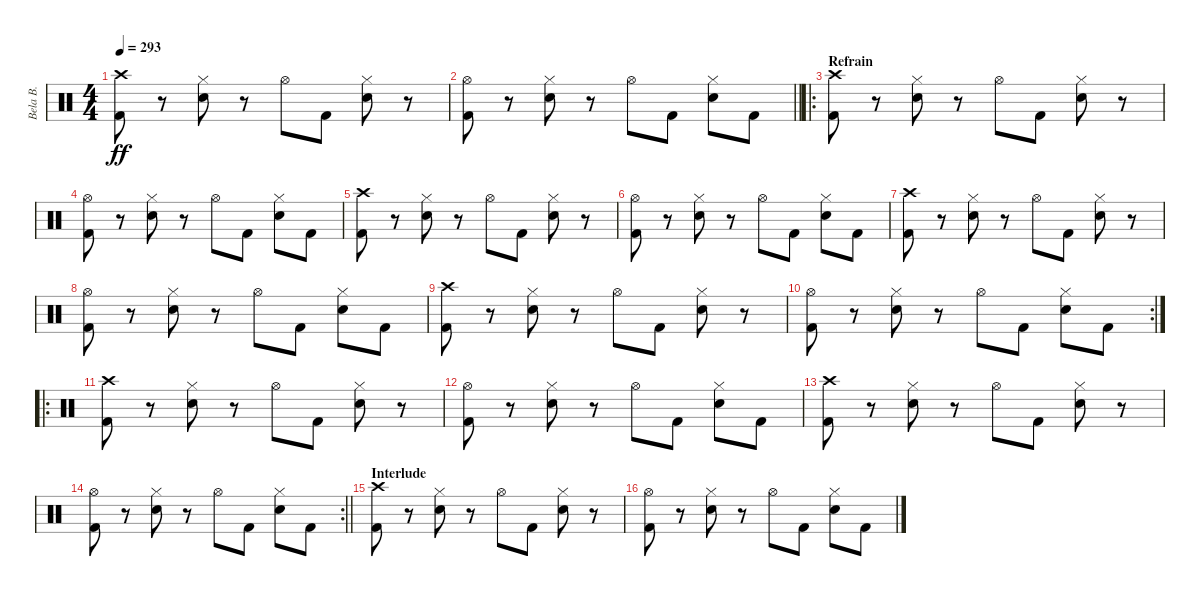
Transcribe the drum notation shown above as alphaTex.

\track ("Bela B." "Bela B.") {instrument percussion}
\staff {score}
\articulation defaults
\ts (4 4)
\tempo 293
\clef neutral
\ks c
("Crash high (hit)" "Kick (hit) 2").8{dy ff} r.8 ("Hi-Hat (closed)" "Snare (hit) 2").8 r.8 "Hi-Hat (open)".8 "Kick (hit) 2".8 ("Hi-Hat (closed)" "Snare (hit) 2").8 r.8 |
\barLineRight lightlight
("Hi-Hat (open)" "Kick (hit) 2").8 r.8 ("Hi-Hat (closed)" "Snare (hit) 2").8 r.8 "Hi-Hat (open)".8 "Kick (hit) 2".8 ("Hi-Hat (closed)" "Snare (hit) 2").8 "Kick (hit) 2".8 |
\ro
\section ("" "Refrain")
("Crash high (hit)" "Kick (hit) 2").8 r.8 ("Hi-Hat (closed)" "Snare (hit) 2").8 r.8 "Hi-Hat (open)".8 "Kick (hit) 2".8 ("Hi-Hat (closed)" "Snare (hit) 2").8 r.8 |
("Hi-Hat (open)" "Kick (hit) 2").8 r.8 ("Hi-Hat (closed)" "Snare (hit) 2").8 r.8 "Hi-Hat (open)".8 "Kick (hit) 2".8 ("Hi-Hat (closed)" "Snare (hit) 2").8 "Kick (hit) 2".8 |
("Crash high (hit)" "Kick (hit) 2").8 r.8 ("Hi-Hat (closed)" "Snare (hit) 2").8 r.8 "Hi-Hat (open)".8 "Kick (hit) 2".8 ("Hi-Hat (closed)" "Snare (hit) 2").8 r.8 |
("Hi-Hat (open)" "Kick (hit) 2").8 r.8 ("Hi-Hat (closed)" "Snare (hit) 2").8 r.8 "Hi-Hat (open)".8 "Kick (hit) 2".8 ("Hi-Hat (closed)" "Snare (hit) 2").8 "Kick (hit) 2".8 |
("Crash high (hit)" "Kick (hit) 2").8 r.8 ("Hi-Hat (closed)" "Snare (hit) 2").8 r.8 "Hi-Hat (open)".8 "Kick (hit) 2".8 ("Hi-Hat (closed)" "Snare (hit) 2").8 r.8 |
("Hi-Hat (open)" "Kick (hit) 2").8 r.8 ("Hi-Hat (closed)" "Snare (hit) 2").8 r.8 "Hi-Hat (open)".8 "Kick (hit) 2".8 ("Hi-Hat (closed)" "Snare (hit) 2").8 "Kick (hit) 2".8 |
("Crash high (hit)" "Kick (hit) 2").8 r.8 ("Hi-Hat (closed)" "Snare (hit) 2").8 r.8 "Hi-Hat (open)".8 "Kick (hit) 2".8 ("Hi-Hat (closed)" "Snare (hit) 2").8 r.8 |
\rc 2
("Hi-Hat (open)" "Kick (hit) 2").8 r.8 ("Hi-Hat (closed)" "Snare (hit) 2").8 r.8 "Hi-Hat (open)".8 "Kick (hit) 2".8 ("Hi-Hat (closed)" "Snare (hit) 2").8 "Kick (hit) 2".8 |
\ro
("Crash high (hit)" "Kick (hit) 2").8 r.8 ("Hi-Hat (closed)" "Snare (hit) 2").8 r.8 "Hi-Hat (open)".8 "Kick (hit) 2".8 ("Hi-Hat (closed)" "Snare (hit) 2").8 r.8 |
("Hi-Hat (open)" "Kick (hit) 2").8 r.8 ("Hi-Hat (closed)" "Snare (hit) 2").8 r.8 "Hi-Hat (open)".8 "Kick (hit) 2".8 ("Hi-Hat (closed)" "Snare (hit) 2").8 "Kick (hit) 2".8 |
("Crash high (hit)" "Kick (hit) 2").8 r.8 ("Hi-Hat (closed)" "Snare (hit) 2").8 r.8 "Hi-Hat (open)".8 "Kick (hit) 2".8 ("Hi-Hat (closed)" "Snare (hit) 2").8 r.8 |
\rc 2
\barLineRight lightlight
("Hi-Hat (open)" "Kick (hit) 2").8 r.8 ("Hi-Hat (closed)" "Snare (hit) 2").8 r.8 "Hi-Hat (open)".8 "Kick (hit) 2".8 ("Hi-Hat (closed)" "Snare (hit) 2").8 "Kick (hit) 2".8 |
\section ("" "Interlude")
("Crash high (hit)" "Kick (hit) 2").8 r.8 ("Hi-Hat (closed)" "Snare (hit) 2").8 r.8 "Hi-Hat (open)".8 "Kick (hit) 2".8 ("Hi-Hat (closed)" "Snare (hit) 2").8 r.8 |
("Hi-Hat (open)" "Kick (hit) 2").8 r.8 ("Hi-Hat (closed)" "Snare (hit) 2").8 r.8 "Hi-Hat (open)".8 "Kick (hit) 2".8 ("Hi-Hat (closed)" "Snare (hit) 2").8 "Kick (hit) 2".8
